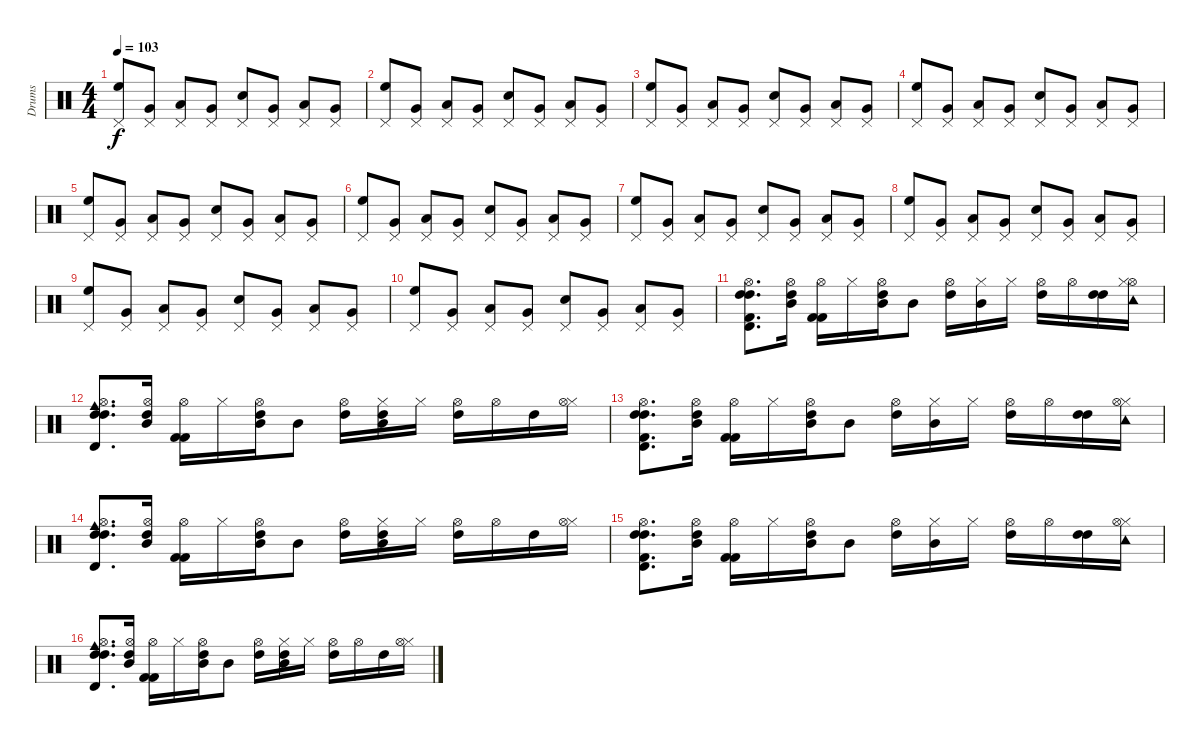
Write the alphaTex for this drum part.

\track ("Drums" "Drums") {instrument percussion}
\staff {score}
\articulation defaults
\ts (4 4)
\tempo 103
\clef neutral
\ks c
("High Floor Tom (hit)" "Pedal Hi-Hat (hit)").8{dy f} ("Very Low Tom (hit)" "Pedal Hi-Hat (hit)").8 ("Pedal Hi-Hat (hit)" "Low Tom (hit)").8 ("Pedal Hi-Hat (hit)" "Very Low Tom (hit)").8 ("Electric Snare (hit)" "Pedal Hi-Hat (hit)").8 ("Pedal Hi-Hat (hit)" "Very Low Tom (hit)").8 ("Pedal Hi-Hat (hit)" "Low Tom (hit)").8 ("Very Low Tom (hit)" "Pedal Hi-Hat (hit)").8 |
("High Floor Tom (hit)" "Pedal Hi-Hat (hit)").8 ("Very Low Tom (hit)" "Pedal Hi-Hat (hit)").8 ("Low Tom (hit)" "Pedal Hi-Hat (hit)").8 ("Very Low Tom (hit)" "Pedal Hi-Hat (hit)").8 ("Pedal Hi-Hat (hit)" "Electric Snare (hit)").8 ("Pedal Hi-Hat (hit)" "Very Low Tom (hit)").8 ("Pedal Hi-Hat (hit)" "Low Tom (hit)").8 ("Pedal Hi-Hat (hit)" "Very Low Tom (hit)").8 |
("Pedal Hi-Hat (hit)" "High Floor Tom (hit)").8 ("Pedal Hi-Hat (hit)" "Very Low Tom (hit)").8 ("Pedal Hi-Hat (hit)" "Low Tom (hit)").8 ("Pedal Hi-Hat (hit)" "Very Low Tom (hit)").8 ("Pedal Hi-Hat (hit)" "Electric Snare (hit)").8 ("Pedal Hi-Hat (hit)" "Very Low Tom (hit)").8 ("Pedal Hi-Hat (hit)" "Low Tom (hit)").8 ("Pedal Hi-Hat (hit)" "Very Low Tom (hit)").8 |
("Pedal Hi-Hat (hit)" "High Floor Tom (hit)").8 ("Very Low Tom (hit)" "Pedal Hi-Hat (hit)").8 ("Low Tom (hit)" "Pedal Hi-Hat (hit)").8 ("Very Low Tom (hit)" "Pedal Hi-Hat (hit)").8 ("Electric Snare (hit)" "Pedal Hi-Hat (hit)").8 ("Very Low Tom (hit)" "Pedal Hi-Hat (hit)").8 ("Low Tom (hit)" "Pedal Hi-Hat (hit)").8 ("Pedal Hi-Hat (hit)" "Very Low Tom (hit)").8 |
("Pedal Hi-Hat (hit)" "High Floor Tom (hit)").8 ("Very Low Tom (hit)" "Pedal Hi-Hat (hit)").8 ("Low Tom (hit)" "Pedal Hi-Hat (hit)").8 ("Pedal Hi-Hat (hit)" "Very Low Tom (hit)").8 ("Pedal Hi-Hat (hit)" "Electric Snare (hit)").8 ("Pedal Hi-Hat (hit)" "Very Low Tom (hit)").8 ("Pedal Hi-Hat (hit)" "Low Tom (hit)").8 ("Pedal Hi-Hat (hit)" "Very Low Tom (hit)").8 |
("Pedal Hi-Hat (hit)" "High Floor Tom (hit)").8 ("Pedal Hi-Hat (hit)" "Very Low Tom (hit)").8 ("Pedal Hi-Hat (hit)" "Low Tom (hit)").8 ("Pedal Hi-Hat (hit)" "Very Low Tom (hit)").8 ("Pedal Hi-Hat (hit)" "Electric Snare (hit)").8 ("Pedal Hi-Hat (hit)" "Very Low Tom (hit)").8 ("Pedal Hi-Hat (hit)" "Low Tom (hit)").8 ("Very Low Tom (hit)" "Pedal Hi-Hat (hit)").8 |
("High Floor Tom (hit)" "Pedal Hi-Hat (hit)").8 ("Pedal Hi-Hat (hit)" "Very Low Tom (hit)").8 ("Pedal Hi-Hat (hit)" "Low Tom (hit)").8 ("Very Low Tom (hit)" "Pedal Hi-Hat (hit)").8 ("Pedal Hi-Hat (hit)" "Electric Snare (hit)").8 ("Pedal Hi-Hat (hit)" "Very Low Tom (hit)").8 ("Low Tom (hit)" "Pedal Hi-Hat (hit)").8 ("Very Low Tom (hit)" "Pedal Hi-Hat (hit)").8 |
("High Floor Tom (hit)" "Pedal Hi-Hat (hit)").8 ("Very Low Tom (hit)" "Pedal Hi-Hat (hit)").8 ("Low Tom (hit)" "Pedal Hi-Hat (hit)").8 ("Pedal Hi-Hat (hit)" "Very Low Tom (hit)").8 ("Pedal Hi-Hat (hit)" "Electric Snare (hit)").8 ("Pedal Hi-Hat (hit)" "Very Low Tom (hit)").8 ("Pedal Hi-Hat (hit)" "Low Tom (hit)").8 ("Pedal Hi-Hat (hit)" "Very Low Tom (hit)").8 |
("Pedal Hi-Hat (hit)" "High Floor Tom (hit)").8 ("Pedal Hi-Hat (hit)" "Very Low Tom (hit)").8 ("Pedal Hi-Hat (hit)" "Low Tom (hit)").8 ("Pedal Hi-Hat (hit)" "Very Low Tom (hit)").8 ("Pedal Hi-Hat (hit)" "Electric Snare (hit)").8 ("Pedal Hi-Hat (hit)" "Very Low Tom (hit)").8 ("Pedal Hi-Hat (hit)" "Low Tom (hit)").8 ("Pedal Hi-Hat (hit)" "Very Low Tom (hit)").8 |
("High Floor Tom (hit)" "Pedal Hi-Hat (hit)").8 ("Very Low Tom (hit)" "Pedal Hi-Hat (hit)").8 ("Low Tom (hit)" "Pedal Hi-Hat (hit)").8 ("Very Low Tom (hit)" "Pedal Hi-Hat (hit)").8 ("Electric Snare (hit)" "Pedal Hi-Hat (hit)").8 ("Very Low Tom (hit)" "Pedal Hi-Hat (hit)").8 ("Pedal Hi-Hat (hit)" "Low Tom (hit)").8 ("Pedal Hi-Hat (hit)" "Very Low Tom (hit)").8 |
("Timbale high (hit)" "High Tom (hit)" "High Tom (hit)" "Kick (hit) 2" "Hi-Hat (open)").8{d} ("High Tom (hit)" "Mid Tom (hit)" "Hi-Hat (open)").16 ("Kick (hit) 2" "Kick (hit) 2" "Hi-Hat (open)").16 "Hi-Hat (closed)".16 ("Hi-Hat (open)" "High Tom (hit)" "Mid Tom (hit)").16 "Mid Tom (hit)".8 ("Hi-Hat (open)" "High Tom (hit)").16 ("Mid Tom (hit)" "Hi-Hat (closed)").16 "Hi-Hat (closed)".16 ("High Tom (hit)" "Hi-Hat (open)").16 "Hi-Hat (open)".16 ("High Tom (hit)" "High Tom (hit)").16 ("Hi-Hat (open)" "Hi-Hat (closed)" "Tambourine (hit)").16 |
("Timbale high (hit)" "Hi-Hat (open)" "High Tom (hit)" "High Tom (hit)" "Cowbell medium (hit)").8{d} ("Mid Tom (hit)" "High Tom (hit)" "Hi-Hat (open)").16 ("Kick (hit) 2" "Hi-Hat (open)" "Kick (hit) 2").16 "Hi-Hat (closed)".16 ("Hi-Hat (open)" "High Tom (hit)" "Mid Tom (hit)").16 "Mid Tom (hit)".8 ("High Tom (hit)" "Hi-Hat (open)").16 ("Mid Tom (hit)" "Hi-Hat (closed)" "High Tom (hit)").16 "Hi-Hat (closed)".16 ("High Tom (hit)" "Hi-Hat (open)").16 "Hi-Hat (open)".16 "High Tom (hit)".16 ("Hi-Hat (closed)" "Hi-Hat (open)").16 |
("High Tom (hit)" "Kick (hit) 2" "Timbale high (hit)" "High Tom (hit)" "Hi-Hat (open)").8{d} ("High Tom (hit)" "Mid Tom (hit)" "Hi-Hat (open)").16 ("Hi-Hat (open)" "Kick (hit) 2" "Kick (hit) 2").16 "Hi-Hat (closed)".16 ("Mid Tom (hit)" "High Tom (hit)" "Hi-Hat (open)").16 "Mid Tom (hit)".8 ("High Tom (hit)" "Hi-Hat (open)").16 ("Hi-Hat (closed)" "Mid Tom (hit)").16 "Hi-Hat (closed)".16 ("Hi-Hat (open)" "High Tom (hit)").16 "Hi-Hat (open)".16 ("High Tom (hit)" "High Tom (hit)").16 ("Tambourine (hit)" "Hi-Hat (closed)" "Hi-Hat (open)").16 |
("Timbale high (hit)" "High Tom (hit)" "Hi-Hat (open)" "Cowbell medium (hit)" "High Tom (hit)").8{d} ("Hi-Hat (open)" "High Tom (hit)" "Mid Tom (hit)").16 ("Kick (hit) 2" "Hi-Hat (open)" "Kick (hit) 2").16 "Hi-Hat (closed)".16 ("Mid Tom (hit)" "High Tom (hit)" "Hi-Hat (open)").16 "Mid Tom (hit)".8 ("High Tom (hit)" "Hi-Hat (open)").16 ("High Tom (hit)" "Hi-Hat (closed)" "Mid Tom (hit)").16 "Hi-Hat (closed)".16 ("High Tom (hit)" "Hi-Hat (open)").16 "Hi-Hat (open)".16 "High Tom (hit)".16 ("Hi-Hat (closed)" "Hi-Hat (open)").16 |
("High Tom (hit)" "Timbale high (hit)" "Hi-Hat (open)" "Kick (hit) 2" "High Tom (hit)").8{d} ("Mid Tom (hit)" "Hi-Hat (open)" "High Tom (hit)").16 ("Hi-Hat (open)" "Kick (hit) 2" "Kick (hit) 2").16 "Hi-Hat (closed)".16 ("Mid Tom (hit)" "Hi-Hat (open)" "High Tom (hit)").16 "Mid Tom (hit)".8 ("High Tom (hit)" "Hi-Hat (open)").16 ("Hi-Hat (closed)" "Mid Tom (hit)").16 "Hi-Hat (closed)".16 ("High Tom (hit)" "Hi-Hat (open)").16 "Hi-Hat (open)".16 ("High Tom (hit)" "High Tom (hit)").16 ("Hi-Hat (closed)" "Hi-Hat (open)" "Tambourine (hit)").16 |
("Timbale high (hit)" "Cowbell medium (hit)" "Hi-Hat (open)" "High Tom (hit)" "High Tom (hit)").8{d} ("Mid Tom (hit)" "High Tom (hit)" "Hi-Hat (open)").16 ("Kick (hit) 2" "Hi-Hat (open)" "Kick (hit) 2").16 "Hi-Hat (closed)".16 ("Hi-Hat (open)" "High Tom (hit)" "Mid Tom (hit)").16 "Mid Tom (hit)".8 ("High Tom (hit)" "Hi-Hat (open)").16 ("Mid Tom (hit)" "Hi-Hat (closed)" "High Tom (hit)").16 "Hi-Hat (closed)".16 ("High Tom (hit)" "Hi-Hat (open)").16 "Hi-Hat (open)".16 "High Tom (hit)".16 ("Hi-Hat (closed)" "Hi-Hat (open)").16
